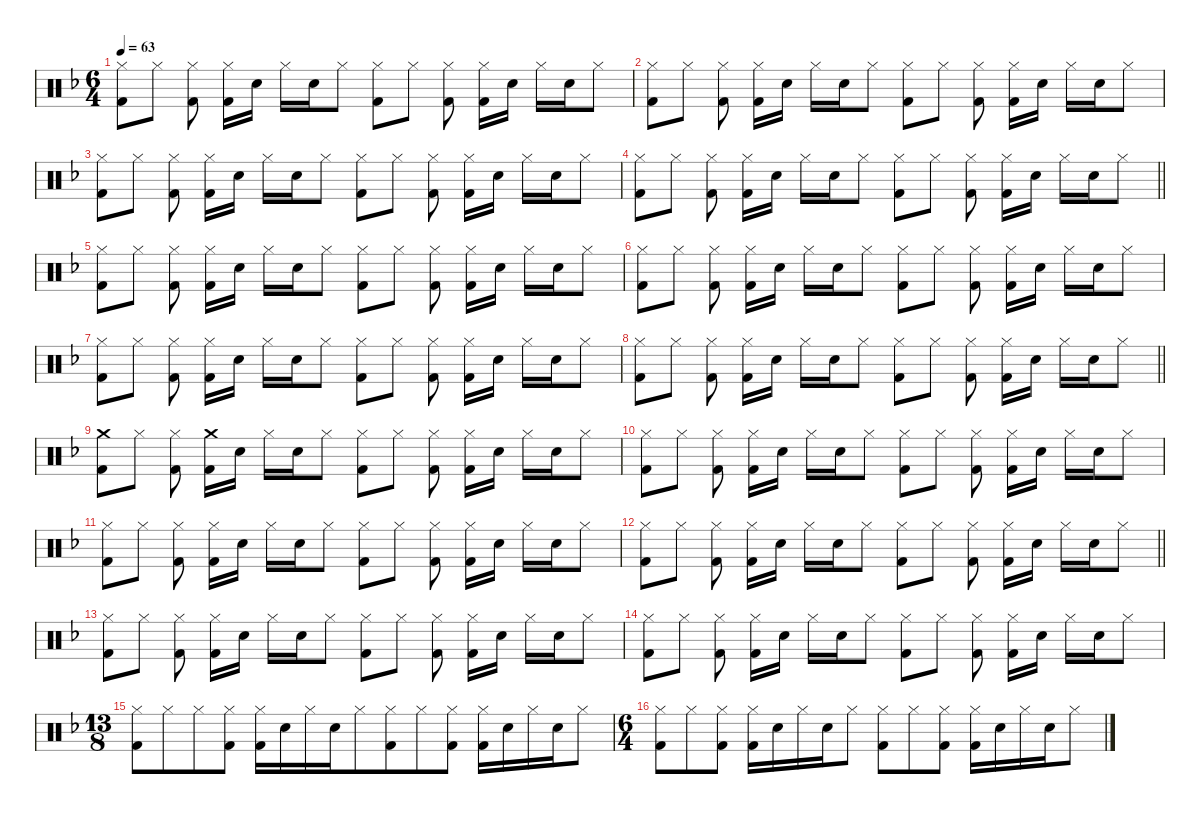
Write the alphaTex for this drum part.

\defaultSystemsLayout 4
\hideDynamics
\bracketExtendMode nobrackets
\singleTrackTrackNamePolicy hidden
\multiTrackTrackNamePolicy hidden
\firstSystemTrackNameMode fullname
\firstSystemTrackNameOrientation horizontal
\otherSystemsTrackNameOrientation horizontal
\track ("Percussion" "drm.") {instrument percussion}
\staff {score}
\articulation defaults
\ts (6 4)
\tempo 63
\clef neutral
\ks f
("Hi-Hat (closed)"{acc forcenatural} "Kick (hit) 2"{acc forcenatural}).8{dy f beam Down} "Hi-Hat (closed)"{acc forcenatural}.8{beam Down} ("Hi-Hat (closed)"{acc forcenatural} "Kick (hit) 2"{acc forcenatural}).8{beam Down beam split} ("Hi-Hat (closed)"{acc forcenatural} "Kick (hit) 2"{acc forcenatural}).16{beam Down} "Snare (hit) 2"{acc forcenatural}.16{beam Down} "Hi-Hat (closed)"{acc forcenatural}.16{beam Down} "Snare (hit) 2"{acc forcenatural}.16{dy mf beam Down} "Hi-Hat (closed)"{acc forcenatural}.8{beam Down} ("Hi-Hat (closed)"{acc forcenatural} "Kick (hit) 2"{acc forcenatural}).8{dy f beam Down} "Hi-Hat (closed)"{acc forcenatural}.8{beam Down} ("Hi-Hat (closed)"{acc forcenatural} "Kick (hit) 2"{acc forcenatural}).8{beam Down beam split} ("Hi-Hat (closed)"{acc forcenatural} "Kick (hit) 2"{acc forcenatural}).16{beam Down} "Snare (hit) 2"{acc forcenatural}.16{beam Down} "Hi-Hat (closed)"{acc forcenatural}.16{beam Down} "Snare (hit) 2"{acc forcenatural}.16{dy mf beam Down} "Hi-Hat (closed)"{acc forcenatural}.8{beam Down} |
("Hi-Hat (closed)"{acc forcenatural} "Kick (hit) 2"{acc forcenatural}).8{dy f beam Down} "Hi-Hat (closed)"{acc forcenatural}.8{beam Down} ("Hi-Hat (closed)"{acc forcenatural} "Kick (hit) 2"{acc forcenatural}).8{beam Down beam split} ("Hi-Hat (closed)"{acc forcenatural} "Kick (hit) 2"{acc forcenatural}).16{beam Down} "Snare (hit) 2"{acc forcenatural}.16{beam Down} "Hi-Hat (closed)"{acc forcenatural}.16{beam Down} "Snare (hit) 2"{acc forcenatural}.16{dy mf beam Down} "Hi-Hat (closed)"{acc forcenatural}.8{beam Down} ("Hi-Hat (closed)"{acc forcenatural} "Kick (hit) 2"{acc forcenatural}).8{dy f beam Down} "Hi-Hat (closed)"{acc forcenatural}.8{beam Down} ("Hi-Hat (closed)"{acc forcenatural} "Kick (hit) 2"{acc forcenatural}).8{beam Down beam split} ("Hi-Hat (closed)"{acc forcenatural} "Kick (hit) 2"{acc forcenatural}).16{beam Down} "Snare (hit) 2"{acc forcenatural}.16{beam Down} "Hi-Hat (closed)"{acc forcenatural}.16{beam Down} "Snare (hit) 2"{acc forcenatural}.16{dy mf beam Down} "Hi-Hat (closed)"{acc forcenatural}.8{beam Down} |
("Hi-Hat (closed)"{acc forcenatural} "Kick (hit) 2"{acc forcenatural}).8{dy f beam Down} "Hi-Hat (closed)"{acc forcenatural}.8{beam Down} ("Hi-Hat (closed)"{acc forcenatural} "Kick (hit) 2"{acc forcenatural}).8{beam Down beam split} ("Hi-Hat (closed)"{acc forcenatural} "Kick (hit) 2"{acc forcenatural}).16{beam Down} "Snare (hit) 2"{acc forcenatural}.16{beam Down} "Hi-Hat (closed)"{acc forcenatural}.16{beam Down} "Snare (hit) 2"{acc forcenatural}.16{dy mf beam Down} "Hi-Hat (closed)"{acc forcenatural}.8{beam Down} ("Hi-Hat (closed)"{acc forcenatural} "Kick (hit) 2"{acc forcenatural}).8{dy f beam Down} "Hi-Hat (closed)"{acc forcenatural}.8{beam Down} ("Hi-Hat (closed)"{acc forcenatural} "Kick (hit) 2"{acc forcenatural}).8{beam Down beam split} ("Hi-Hat (closed)"{acc forcenatural} "Kick (hit) 2"{acc forcenatural}).16{beam Down} "Snare (hit) 2"{acc forcenatural}.16{beam Down} "Hi-Hat (closed)"{acc forcenatural}.16{beam Down} "Snare (hit) 2"{acc forcenatural}.16{dy mf beam Down} "Hi-Hat (closed)"{acc forcenatural}.8{beam Down} |
\barLineRight lightlight
("Hi-Hat (closed)"{acc forcenatural} "Kick (hit) 2"{acc forcenatural}).8{dy f beam Down} "Hi-Hat (closed)"{acc forcenatural}.8{beam Down} ("Hi-Hat (closed)"{acc forcenatural} "Kick (hit) 2"{acc forcenatural}).8{beam Down beam split} ("Hi-Hat (closed)"{acc forcenatural} "Kick (hit) 2"{acc forcenatural}).16{beam Down} "Snare (hit) 2"{acc forcenatural}.16{beam Down} "Hi-Hat (closed)"{acc forcenatural}.16{beam Down} "Snare (hit) 2"{acc forcenatural}.16{dy mf beam Down} "Hi-Hat (closed)"{acc forcenatural}.8{beam Down} ("Hi-Hat (closed)"{acc forcenatural} "Kick (hit) 2"{acc forcenatural}).8{dy f beam Down} "Hi-Hat (closed)"{acc forcenatural}.8{beam Down} ("Hi-Hat (closed)"{acc forcenatural} "Kick (hit) 2"{acc forcenatural}).8{beam Down beam split} ("Hi-Hat (closed)"{acc forcenatural} "Kick (hit) 2"{acc forcenatural}).16{beam Down} "Snare (hit) 2"{acc forcenatural}.16{beam Down} "Hi-Hat (closed)"{acc forcenatural}.16{beam Down} "Snare (hit) 2"{acc forcenatural}.16{dy mf beam Down} "Hi-Hat (closed)"{acc forcenatural}.8{beam Down} |
("Hi-Hat (closed)"{acc forcenatural} "Kick (hit) 2"{acc forcenatural}).8{dy f beam Down} "Hi-Hat (closed)"{acc forcenatural}.8{beam Down} ("Hi-Hat (closed)"{acc forcenatural} "Kick (hit) 2"{acc forcenatural}).8{beam Down beam split} ("Hi-Hat (closed)"{acc forcenatural} "Kick (hit) 2"{acc forcenatural}).16{beam Down} "Snare (hit) 2"{acc forcenatural}.16{beam Down} "Hi-Hat (closed)"{acc forcenatural}.16{beam Down} "Snare (hit) 2"{acc forcenatural}.16{dy mf beam Down} "Hi-Hat (closed)"{acc forcenatural}.8{beam Down} ("Hi-Hat (closed)"{acc forcenatural} "Kick (hit) 2"{acc forcenatural}).8{dy f beam Down} "Hi-Hat (closed)"{acc forcenatural}.8{beam Down} ("Hi-Hat (closed)"{acc forcenatural} "Kick (hit) 2"{acc forcenatural}).8{beam Down beam split} ("Hi-Hat (closed)"{acc forcenatural} "Kick (hit) 2"{acc forcenatural}).16{beam Down} "Snare (hit) 2"{acc forcenatural}.16{beam Down} "Hi-Hat (closed)"{acc forcenatural}.16{beam Down} "Snare (hit) 2"{acc forcenatural}.16{dy mf beam Down} "Hi-Hat (closed)"{acc forcenatural}.8{beam Down} |
("Hi-Hat (closed)"{acc forcenatural} "Kick (hit) 2"{acc forcenatural}).8{dy f beam Down} "Hi-Hat (closed)"{acc forcenatural}.8{beam Down} ("Hi-Hat (closed)"{acc forcenatural} "Kick (hit) 2"{acc forcenatural}).8{beam Down beam split} ("Hi-Hat (closed)"{acc forcenatural} "Kick (hit) 2"{acc forcenatural}).16{beam Down} "Snare (hit) 2"{acc forcenatural}.16{beam Down} "Hi-Hat (closed)"{acc forcenatural}.16{beam Down} "Snare (hit) 2"{acc forcenatural}.16{dy mf beam Down} "Hi-Hat (closed)"{acc forcenatural}.8{beam Down} ("Hi-Hat (closed)"{acc forcenatural} "Kick (hit) 2"{acc forcenatural}).8{dy f beam Down} "Hi-Hat (closed)"{acc forcenatural}.8{beam Down} ("Hi-Hat (closed)"{acc forcenatural} "Kick (hit) 2"{acc forcenatural}).8{beam Down beam split} ("Hi-Hat (closed)"{acc forcenatural} "Kick (hit) 2"{acc forcenatural}).16{beam Down} "Snare (hit) 2"{acc forcenatural}.16{beam Down} "Hi-Hat (closed)"{acc forcenatural}.16{beam Down} "Snare (hit) 2"{acc forcenatural}.16{dy mf beam Down} "Hi-Hat (closed)"{acc forcenatural}.8{beam Down} |
("Hi-Hat (closed)"{acc forcenatural} "Kick (hit) 2"{acc forcenatural}).8{dy f beam Down} "Hi-Hat (closed)"{acc forcenatural}.8{beam Down} ("Hi-Hat (closed)"{acc forcenatural} "Kick (hit) 2"{acc forcenatural}).8{beam Down beam split} ("Hi-Hat (closed)"{acc forcenatural} "Kick (hit) 2"{acc forcenatural}).16{beam Down} "Snare (hit) 2"{acc forcenatural}.16{beam Down} "Hi-Hat (closed)"{acc forcenatural}.16{beam Down} "Snare (hit) 2"{acc forcenatural}.16{dy mf beam Down} "Hi-Hat (closed)"{acc forcenatural}.8{beam Down} ("Hi-Hat (closed)"{acc forcenatural} "Kick (hit) 2"{acc forcenatural}).8{dy f beam Down} "Hi-Hat (closed)"{acc forcenatural}.8{beam Down} ("Hi-Hat (closed)"{acc forcenatural} "Kick (hit) 2"{acc forcenatural}).8{beam Down beam split} ("Hi-Hat (closed)"{acc forcenatural} "Kick (hit) 2"{acc forcenatural}).16{beam Down} "Snare (hit) 2"{acc forcenatural}.16{beam Down} "Hi-Hat (closed)"{acc forcenatural}.16{beam Down} "Snare (hit) 2"{acc forcenatural}.16{dy mf beam Down} "Hi-Hat (closed)"{acc forcenatural}.8{beam Down} |
\barLineRight lightlight
("Hi-Hat (closed)"{acc forcenatural} "Kick (hit) 2"{acc forcenatural}).8{dy f beam Down} "Hi-Hat (closed)"{acc forcenatural}.8{beam Down} ("Hi-Hat (closed)"{acc forcenatural} "Kick (hit) 2"{acc forcenatural}).8{beam Down beam split} ("Hi-Hat (closed)"{acc forcenatural} "Kick (hit) 2"{acc forcenatural}).16{beam Down} "Snare (hit) 2"{acc forcenatural}.16{beam Down} "Hi-Hat (closed)"{acc forcenatural}.16{beam Down} "Snare (hit) 2"{acc forcenatural}.16{dy mf beam Down} "Hi-Hat (closed)"{acc forcenatural}.8{beam Down} ("Hi-Hat (closed)"{acc forcenatural} "Kick (hit) 2"{acc forcenatural}).8{dy f beam Down} "Hi-Hat (closed)"{acc forcenatural}.8{beam Down} ("Hi-Hat (closed)"{acc forcenatural} "Kick (hit) 2"{acc forcenatural}).8{beam Down beam split} ("Hi-Hat (closed)"{acc forcenatural} "Kick (hit) 2"{acc forcenatural}).16{beam Down} "Snare (hit) 2"{acc forcenatural}.16{beam Down} "Hi-Hat (closed)"{acc forcenatural}.16{beam Down} "Snare (hit) 2"{acc forcenatural}.16{dy mf beam Down} "Hi-Hat (closed)"{acc forcenatural}.8{beam Down} |
("Crash medium (hit)"{acc forcenatural} "Kick (hit) 2"{acc forcenatural}).8{dy f beam Down} "Hi-Hat (closed)"{acc forcenatural}.8{beam Down} ("Hi-Hat (closed)"{acc forcenatural} "Kick (hit) 2"{acc forcenatural}).8{beam Down beam split} ("Crash medium (hit)"{acc forcenatural} "Kick (hit) 2"{acc forcenatural}).16{beam Down} "Snare (hit) 2"{acc forcenatural}.16{beam Down} "Hi-Hat (closed)"{acc forcenatural}.16{beam Down} "Snare (hit) 2"{acc forcenatural}.16{dy mf beam Down} "Hi-Hat (closed)"{acc forcenatural}.8{beam Down} ("Hi-Hat (closed)"{acc forcenatural} "Kick (hit) 2"{acc forcenatural}).8{dy f beam Down} "Hi-Hat (closed)"{acc forcenatural}.8{beam Down} ("Hi-Hat (closed)"{acc forcenatural} "Kick (hit) 2"{acc forcenatural}).8{beam Down beam split} ("Hi-Hat (closed)"{acc forcenatural} "Kick (hit) 2"{acc forcenatural}).16{beam Down} "Snare (hit) 2"{acc forcenatural}.16{beam Down} "Hi-Hat (closed)"{acc forcenatural}.16{beam Down} "Snare (hit) 2"{acc forcenatural}.16{dy mf beam Down} "Hi-Hat (closed)"{acc forcenatural}.8{beam Down} |
("Hi-Hat (closed)"{acc forcenatural} "Kick (hit) 2"{acc forcenatural}).8{dy f beam Down} "Hi-Hat (closed)"{acc forcenatural}.8{beam Down} ("Hi-Hat (closed)"{acc forcenatural} "Kick (hit) 2"{acc forcenatural}).8{beam Down beam split} ("Hi-Hat (closed)"{acc forcenatural} "Kick (hit) 2"{acc forcenatural}).16{beam Down} "Snare (hit) 2"{acc forcenatural}.16{beam Down} "Hi-Hat (closed)"{acc forcenatural}.16{beam Down} "Snare (hit) 2"{acc forcenatural}.16{dy mf beam Down} "Hi-Hat (closed)"{acc forcenatural}.8{beam Down} ("Hi-Hat (closed)"{acc forcenatural} "Kick (hit) 2"{acc forcenatural}).8{dy f beam Down} "Hi-Hat (closed)"{acc forcenatural}.8{beam Down} ("Hi-Hat (closed)"{acc forcenatural} "Kick (hit) 2"{acc forcenatural}).8{beam Down beam split} ("Hi-Hat (closed)"{acc forcenatural} "Kick (hit) 2"{acc forcenatural}).16{beam Down} "Snare (hit) 2"{acc forcenatural}.16{beam Down} "Hi-Hat (closed)"{acc forcenatural}.16{beam Down} "Snare (hit) 2"{acc forcenatural}.16{dy mf beam Down} "Hi-Hat (closed)"{acc forcenatural}.8{beam Down} |
("Hi-Hat (closed)"{acc forcenatural} "Kick (hit) 2"{acc forcenatural}).8{dy f beam Down} "Hi-Hat (closed)"{acc forcenatural}.8{beam Down} ("Hi-Hat (closed)"{acc forcenatural} "Kick (hit) 2"{acc forcenatural}).8{beam Down beam split} ("Hi-Hat (closed)"{acc forcenatural} "Kick (hit) 2"{acc forcenatural}).16{beam Down} "Snare (hit) 2"{acc forcenatural}.16{beam Down} "Hi-Hat (closed)"{acc forcenatural}.16{beam Down} "Snare (hit) 2"{acc forcenatural}.16{dy mf beam Down} "Hi-Hat (closed)"{acc forcenatural}.8{beam Down} ("Hi-Hat (closed)"{acc forcenatural} "Kick (hit) 2"{acc forcenatural}).8{dy f beam Down} "Hi-Hat (closed)"{acc forcenatural}.8{beam Down} ("Hi-Hat (closed)"{acc forcenatural} "Kick (hit) 2"{acc forcenatural}).8{beam Down beam split} ("Hi-Hat (closed)"{acc forcenatural} "Kick (hit) 2"{acc forcenatural}).16{beam Down} "Snare (hit) 2"{acc forcenatural}.16{beam Down} "Hi-Hat (closed)"{acc forcenatural}.16{beam Down} "Snare (hit) 2"{acc forcenatural}.16{dy mf beam Down} "Hi-Hat (closed)"{acc forcenatural}.8{beam Down} |
\barLineRight lightlight
("Hi-Hat (closed)"{acc forcenatural} "Kick (hit) 2"{acc forcenatural}).8{dy f beam Down} "Hi-Hat (closed)"{acc forcenatural}.8{beam Down} ("Hi-Hat (closed)"{acc forcenatural} "Kick (hit) 2"{acc forcenatural}).8{beam Down beam split} ("Hi-Hat (closed)"{acc forcenatural} "Kick (hit) 2"{acc forcenatural}).16{beam Down} "Snare (hit) 2"{acc forcenatural}.16{beam Down} "Hi-Hat (closed)"{acc forcenatural}.16{beam Down} "Snare (hit) 2"{acc forcenatural}.16{dy mf beam Down} "Hi-Hat (closed)"{acc forcenatural}.8{beam Down} ("Hi-Hat (closed)"{acc forcenatural} "Kick (hit) 2"{acc forcenatural}).8{dy f beam Down} "Hi-Hat (closed)"{acc forcenatural}.8{beam Down} ("Hi-Hat (closed)"{acc forcenatural} "Kick (hit) 2"{acc forcenatural}).8{beam Down beam split} ("Hi-Hat (closed)"{acc forcenatural} "Kick (hit) 2"{acc forcenatural}).16{beam Down} "Snare (hit) 2"{acc forcenatural}.16{beam Down} "Hi-Hat (closed)"{acc forcenatural}.16{beam Down} "Snare (hit) 2"{acc forcenatural}.16{dy mf beam Down} "Hi-Hat (closed)"{acc forcenatural}.8{beam Down} |
("Hi-Hat (closed)"{acc forcenatural} "Kick (hit) 2"{acc forcenatural}).8{dy f beam Down} "Hi-Hat (closed)"{acc forcenatural}.8{beam Down} ("Hi-Hat (closed)"{acc forcenatural} "Kick (hit) 2"{acc forcenatural}).8{beam Down beam split} ("Hi-Hat (closed)"{acc forcenatural} "Kick (hit) 2"{acc forcenatural}).16{beam Down} "Snare (hit) 2"{acc forcenatural}.16{beam Down} "Hi-Hat (closed)"{acc forcenatural}.16{beam Down} "Snare (hit) 2"{acc forcenatural}.16{dy mf beam Down} "Hi-Hat (closed)"{acc forcenatural}.8{beam Down} ("Hi-Hat (closed)"{acc forcenatural} "Kick (hit) 2"{acc forcenatural}).8{dy f beam Down} "Hi-Hat (closed)"{acc forcenatural}.8{beam Down} ("Hi-Hat (closed)"{acc forcenatural} "Kick (hit) 2"{acc forcenatural}).8{beam Down beam split} ("Hi-Hat (closed)"{acc forcenatural} "Kick (hit) 2"{acc forcenatural}).16{beam Down} "Snare (hit) 2"{acc forcenatural}.16{beam Down} "Hi-Hat (closed)"{acc forcenatural}.16{beam Down} "Snare (hit) 2"{acc forcenatural}.16{dy mf beam Down} "Hi-Hat (closed)"{acc forcenatural}.8{beam Down} |
("Hi-Hat (closed)"{acc forcenatural} "Kick (hit) 2"{acc forcenatural}).8{dy f beam Down} "Hi-Hat (closed)"{acc forcenatural}.8{beam Down} ("Hi-Hat (closed)"{acc forcenatural} "Kick (hit) 2"{acc forcenatural}).8{beam Down beam split} ("Hi-Hat (closed)"{acc forcenatural} "Kick (hit) 2"{acc forcenatural}).16{beam Down} "Snare (hit) 2"{acc forcenatural}.16{beam Down} "Hi-Hat (closed)"{acc forcenatural}.16{beam Down} "Snare (hit) 2"{acc forcenatural}.16{dy mf beam Down} "Hi-Hat (closed)"{acc forcenatural}.8{beam Down} ("Hi-Hat (closed)"{acc forcenatural} "Kick (hit) 2"{acc forcenatural}).8{dy f beam Down} "Hi-Hat (closed)"{acc forcenatural}.8{beam Down} ("Hi-Hat (closed)"{acc forcenatural} "Kick (hit) 2"{acc forcenatural}).8{beam Down beam split} ("Hi-Hat (closed)"{acc forcenatural} "Kick (hit) 2"{acc forcenatural}).16{beam Down} "Snare (hit) 2"{acc forcenatural}.16{beam Down} "Hi-Hat (closed)"{acc forcenatural}.16{beam Down} "Snare (hit) 2"{acc forcenatural}.16{dy mf beam Down} "Hi-Hat (closed)"{acc forcenatural}.8{beam Down} |
\ts (13 8)
\beaming (8 13)
("Hi-Hat (closed)"{acc forcenatural} "Kick (hit) 2"{acc forcenatural}).8{dy f beam Down beam merge} "Hi-Hat (closed)"{acc forcenatural}.8{beam Down beam merge} "Hi-Hat (closed)"{acc forcenatural}.8{beam Down beam merge} ("Hi-Hat (closed)"{acc forcenatural} "Kick (hit) 2"{acc forcenatural}).8{beam Down beam split} ("Hi-Hat (closed)"{acc forcenatural} "Kick (hit) 2"{acc forcenatural}).16{beam Down} "Snare (hit) 2"{acc forcenatural}.16{beam Down beam merge} "Hi-Hat (closed)"{acc forcenatural}.16{beam Down} "Snare (hit) 2"{acc forcenatural}.16{dy mf beam Down beam merge} "Hi-Hat (closed)"{acc forcenatural}.8{beam Down} ("Hi-Hat (closed)"{acc forcenatural} "Kick (hit) 2"{acc forcenatural}).8{dy f beam Down beam merge} "Hi-Hat (closed)"{acc forcenatural}.8{beam Down beam merge} ("Hi-Hat (closed)"{acc forcenatural} "Kick (hit) 2"{acc forcenatural}).8{beam Down beam split} ("Hi-Hat (closed)"{acc forcenatural} "Kick (hit) 2"{acc forcenatural}).16{beam Down} "Snare (hit) 2"{acc forcenatural}.16{beam Down beam merge} "Hi-Hat (closed)"{acc forcenatural}.16{beam Down} "Snare (hit) 2"{acc forcenatural}.16{dy mf beam Down beam merge} "Hi-Hat (closed)"{acc forcenatural}.8{beam Down} |
\ts (6 4)
\beaming (8 6 6)
("Hi-Hat (closed)"{acc forcenatural} "Kick (hit) 2"{acc forcenatural}).8{dy f beam Down} "Hi-Hat (closed)"{acc forcenatural}.8{beam Down} ("Hi-Hat (closed)"{acc forcenatural} "Kick (hit) 2"{acc forcenatural}).8{beam Down beam split} ("Hi-Hat (closed)"{acc forcenatural} "Kick (hit) 2"{acc forcenatural}).16{beam Down} "Snare (hit) 2"{acc forcenatural}.16{beam Down} "Hi-Hat (closed)"{acc forcenatural}.16{beam Down} "Snare (hit) 2"{acc forcenatural}.16{dy mf beam Down} "Hi-Hat (closed)"{acc forcenatural}.8{beam Down} ("Hi-Hat (closed)"{acc forcenatural} "Kick (hit) 2"{acc forcenatural}).8{dy f beam Down} "Hi-Hat (closed)"{acc forcenatural}.8{beam Down} ("Hi-Hat (closed)"{acc forcenatural} "Kick (hit) 2"{acc forcenatural}).8{beam Down beam split} ("Hi-Hat (closed)"{acc forcenatural} "Kick (hit) 2"{acc forcenatural}).16{beam Down} "Snare (hit) 2"{acc forcenatural}.16{beam Down} "Hi-Hat (closed)"{acc forcenatural}.16{beam Down} "Snare (hit) 2"{acc forcenatural}.16{dy mf beam Down} "Hi-Hat (closed)"{acc forcenatural}.8{beam Down}
